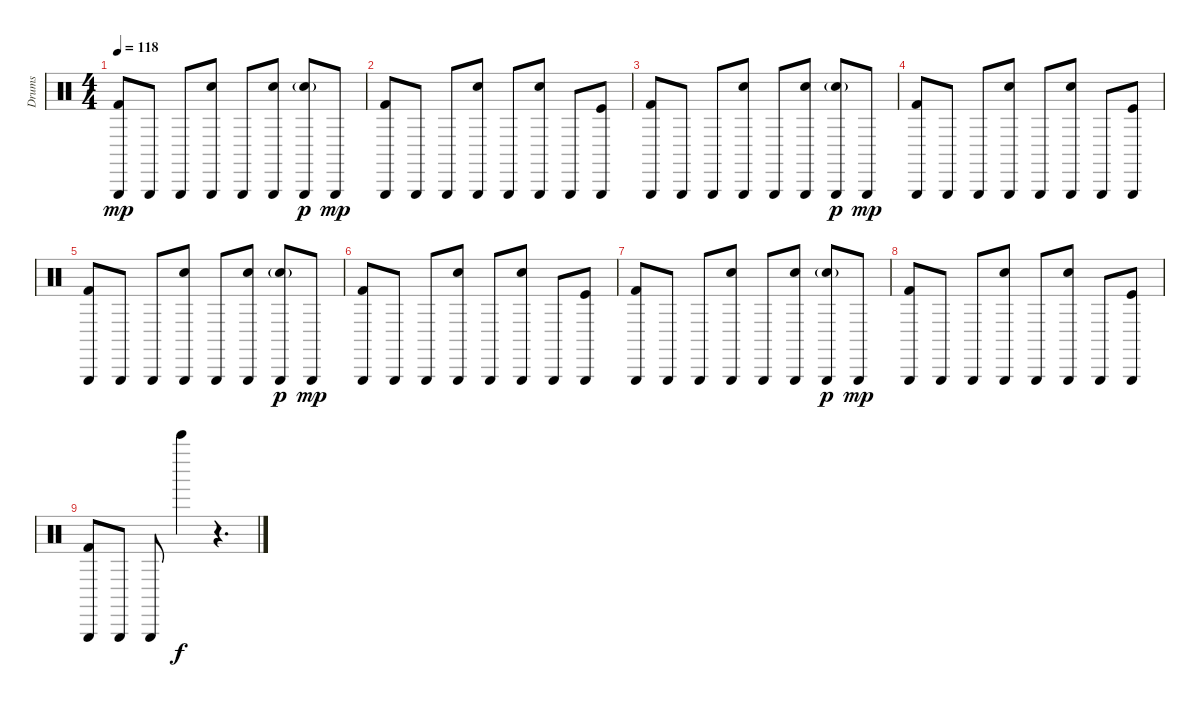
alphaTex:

\track ("Drums" "Drums") {instrument percussion}
\staff {score}
\articulation defaults
\ts (4 4)
\tempo 118
\clef neutral
\ks c
("Triangle (hit)" "Kick (hit) 2").8{dy mp} "Triangle (hit)".8 "Triangle (hit)".8 ("Triangle (hit)" "Electric Snare (hit)").8 "Triangle (hit)".8 ("Triangle (hit)" "Electric Snare (hit)").8 ("Triangle (hit)" "Electric Snare (hit)"{g}).8{dy p} "Triangle (hit)".8{dy mp} |
("Triangle (hit)" "Kick (hit) 2").8 "Triangle (hit)".8 "Triangle (hit)".8 ("Triangle (hit)" "Electric Snare (hit)").8 "Triangle (hit)".8 ("Triangle (hit)" "Electric Snare (hit)").8 "Triangle (hit)".8 ("Triangle (hit)" "Kick (hit)").8 |
("Triangle (hit)" "Kick (hit) 2").8 "Triangle (hit)".8 "Triangle (hit)".8 ("Triangle (hit)" "Electric Snare (hit)").8 "Triangle (hit)".8 ("Triangle (hit)" "Electric Snare (hit)").8 ("Triangle (hit)" "Electric Snare (hit)"{g}).8{dy p} "Triangle (hit)".8{dy mp} |
("Triangle (hit)" "Kick (hit) 2").8 "Triangle (hit)".8 "Triangle (hit)".8 ("Triangle (hit)" "Electric Snare (hit)").8 "Triangle (hit)".8 ("Triangle (hit)" "Electric Snare (hit)").8 "Triangle (hit)".8 ("Triangle (hit)" "Kick (hit)").8 |
("Triangle (hit)" "Kick (hit) 2").8 "Triangle (hit)".8 "Triangle (hit)".8 ("Triangle (hit)" "Electric Snare (hit)").8 "Triangle (hit)".8 ("Triangle (hit)" "Electric Snare (hit)").8 ("Triangle (hit)" "Electric Snare (hit)"{g}).8{dy p} "Triangle (hit)".8{dy mp} |
("Triangle (hit)" "Kick (hit) 2").8 "Triangle (hit)".8 "Triangle (hit)".8 ("Triangle (hit)" "Electric Snare (hit)").8 "Triangle (hit)".8 ("Triangle (hit)" "Electric Snare (hit)").8 "Triangle (hit)".8 ("Triangle (hit)" "Kick (hit)").8 |
("Triangle (hit)" "Kick (hit) 2").8 "Triangle (hit)".8 "Triangle (hit)".8 ("Triangle (hit)" "Electric Snare (hit)").8 "Triangle (hit)".8 ("Triangle (hit)" "Electric Snare (hit)").8 ("Triangle (hit)" "Electric Snare (hit)"{g}).8{dy p} "Triangle (hit)".8{dy mp} |
("Triangle (hit)" "Kick (hit) 2").8 "Triangle (hit)".8 "Triangle (hit)".8 ("Triangle (hit)" "Electric Snare (hit)").8 "Triangle (hit)".8 ("Triangle (hit)" "Electric Snare (hit)").8 "Triangle (hit)".8 ("Triangle (hit)" "Kick (hit)").8 |
("Triangle (hit)" "Kick (hit) 2").8 "Triangle (hit)".8 "Triangle (hit)".8 "Bell Tree (hit)".4{dy f} r.4{d}
